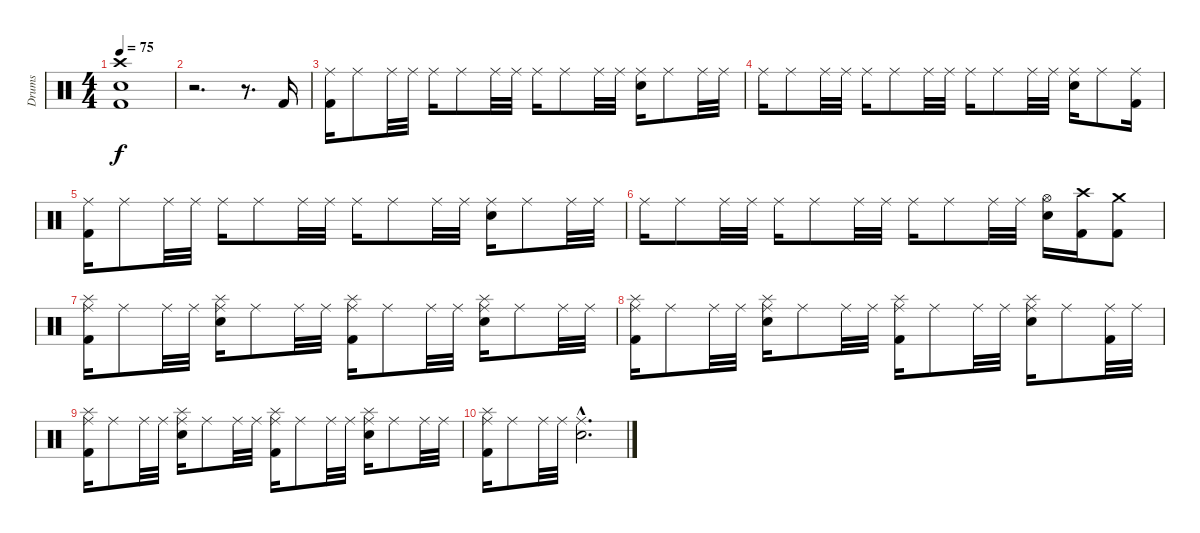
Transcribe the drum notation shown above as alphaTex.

\track ("Drums" "Drums") {instrument percussion}
\staff {score}
\articulation defaults
\ts (4 4)
\tempo 75
\clef neutral
\ks c
("Crash high (hit)" "Electric Snare (hit)" "Kick (hit) 2").1{dy f} |
r.2{d} r.8{d} "Kick (hit) 2".16 |
("Ride (middle)" "Kick (hit) 2").16 "Ride (middle)".8 "Ride (middle)".32 "Ride (middle)".32 "Ride (middle)".16 "Ride (middle)".8 "Ride (middle)".32 "Ride (middle)".32 "Ride (middle)".16 "Ride (middle)".8 "Ride (middle)".32 "Ride (middle)".32 ("Ride (middle)" "Electric Snare (hit)").16 "Ride (middle)".8 "Ride (middle)".32 "Ride (middle)".32 |
"Ride (middle)".16 "Ride (middle)".8 "Ride (middle)".32 "Ride (middle)".32 "Ride (middle)".16 "Ride (middle)".8 "Ride (middle)".32 "Ride (middle)".32 "Ride (middle)".16 "Ride (middle)".8 "Ride (middle)".32 "Ride (middle)".32 ("Ride (middle)" "Electric Snare (hit)").16 "Ride (middle)".8 ("Ride (middle)" "Kick (hit) 2").16 |
("Ride (middle)" "Kick (hit) 2").16 "Ride (middle)".8 "Ride (middle)".32 "Ride (middle)".32 "Ride (middle)".16 "Ride (middle)".8 "Ride (middle)".32 "Ride (middle)".32 "Ride (middle)".16 "Ride (middle)".8 "Ride (middle)".32 "Ride (middle)".32 ("Ride (middle)" "Electric Snare (hit)").16 "Ride (middle)".8 "Ride (middle)".32 "Ride (middle)".32 |
"Ride (middle)".16 "Ride (middle)".8 "Ride (middle)".32 "Ride (middle)".32 "Ride (middle)".16 "Ride (middle)".8 "Ride (middle)".32 "Ride (middle)".32 "Ride (middle)".16 "Ride (middle)".8 "Ride (middle)".32 "Ride (middle)".32 ("Hi-Hat (open)" "Electric Snare (hit)").16 ("Crash high (hit)" "Kick (hit) 2").16 ("Crash medium (hit)" "Kick (hit) 2").8 |
("Ride (middle)" "Kick (hit) 2" "Splash (hit)").16 "Ride (middle)".8 "Ride (middle)".32 "Ride (middle)".32 ("Ride (middle)" "Electric Snare (hit)" "Splash (hit)").16 "Ride (middle)".8 "Ride (middle)".32 "Ride (middle)".32 ("Ride (middle)" "Kick (hit) 2" "Splash (hit)").16 "Ride (middle)".8 "Ride (middle)".32 "Ride (middle)".32 ("Ride (middle)" "Electric Snare (hit)" "Splash (hit)").16 "Ride (middle)".8 "Ride (middle)".32 "Ride (middle)".32 |
("Ride (middle)" "Kick (hit) 2" "Splash (hit)").16 "Ride (middle)".8 "Ride (middle)".32 "Ride (middle)".32 ("Ride (middle)" "Electric Snare (hit)" "Splash (hit)").16 "Ride (middle)".8 "Ride (middle)".32 "Ride (middle)".32 ("Ride (middle)" "Kick (hit) 2" "Splash (hit)").16 "Ride (middle)".8 "Ride (middle)".32 "Ride (middle)".32 ("Ride (middle)" "Electric Snare (hit)" "Splash (hit)").16 "Ride (middle)".8 ("Ride (middle)" "Kick (hit) 2").32 "Ride (middle)".32 |
("Ride (middle)" "Kick (hit) 2" "Splash (hit)").16 "Ride (middle)".8 "Ride (middle)".32 "Ride (middle)".32 ("Ride (middle)" "Electric Snare (hit)" "Splash (hit)").16 "Ride (middle)".8 "Ride (middle)".32 "Ride (middle)".32 ("Ride (middle)" "Kick (hit) 2" "Splash (hit)").16 "Ride (middle)".8 "Ride (middle)".32 "Ride (middle)".32 ("Ride (middle)" "Electric Snare (hit)" "Splash (hit)").16 "Ride (middle)".8 "Ride (middle)".32 "Ride (middle)".32 |
("Ride (middle)" "Kick (hit) 2" "Splash (hit)").16 "Ride (middle)".8 "Ride (middle)".32 "Ride (middle)".32 ("Ride (middle)"{hac} "Electric Snare (hit)"{hac}).2{d}
